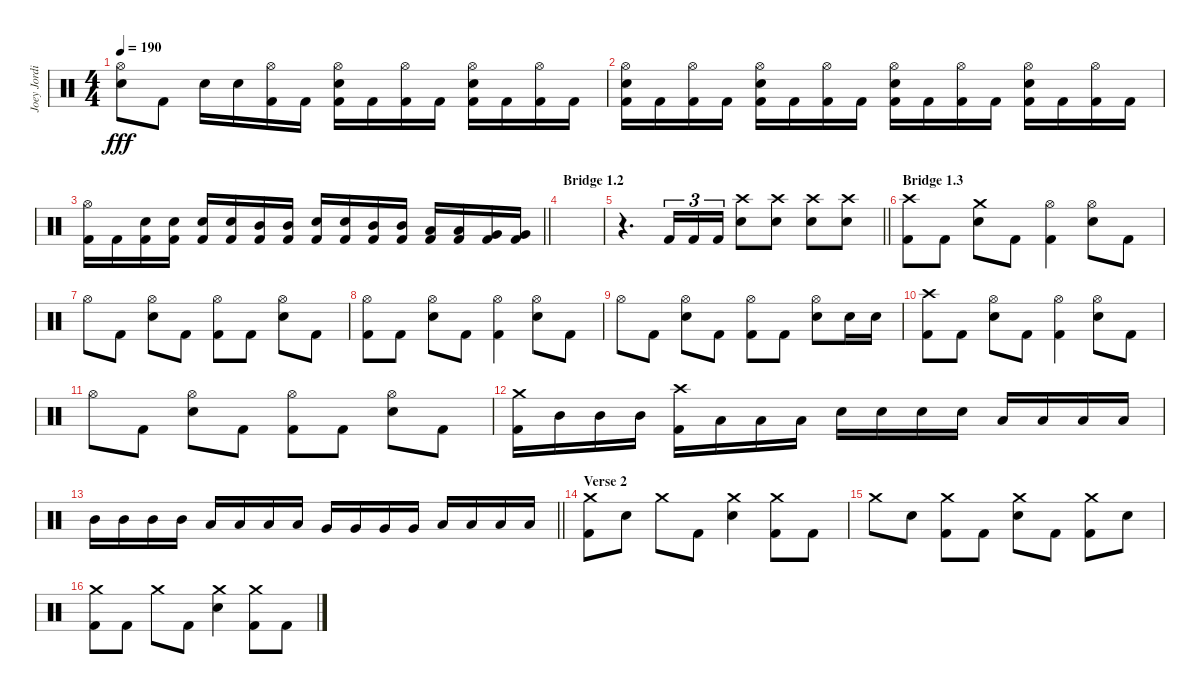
\track ("Joey Jordison" "Joey Jordi") {instrument percussion}
\staff {score}
\articulation defaults
\ts (4 4)
\tempo 190
\clef neutral
\ks c
("Hi-Hat (open)" "Electric Snare (hit)").8{dy fff} "Kick (hit) 2".8 "Electric Snare (hit)".16 "Electric Snare (hit)".16 ("Hi-Hat (open)" "Kick (hit) 2").16 "Kick (hit) 2".16 ("Hi-Hat (open)" "Electric Snare (hit)" "Kick (hit) 2").16 "Kick (hit) 2".16 ("Hi-Hat (open)" "Kick (hit) 2").16 "Kick (hit) 2".16 ("Hi-Hat (open)" "Electric Snare (hit)" "Kick (hit) 2").16 "Kick (hit) 2".16 ("Hi-Hat (open)" "Kick (hit) 2").16 "Kick (hit) 2".16 |
("Hi-Hat (open)" "Electric Snare (hit)" "Kick (hit) 2").16 "Kick (hit) 2".16 ("Hi-Hat (open)" "Kick (hit) 2").16 "Kick (hit) 2".16 ("Hi-Hat (open)" "Electric Snare (hit)" "Kick (hit) 2").16 "Kick (hit) 2".16 ("Hi-Hat (open)" "Kick (hit) 2").16 "Kick (hit) 2".16 ("Hi-Hat (open)" "Electric Snare (hit)" "Kick (hit) 2").16 "Kick (hit) 2".16 ("Hi-Hat (open)" "Kick (hit) 2").16 "Kick (hit) 2".16 ("Hi-Hat (open)" "Electric Snare (hit)" "Kick (hit) 2").16 "Kick (hit) 2".16 ("Hi-Hat (open)" "Kick (hit) 2").16 "Kick (hit) 2".16 |
\barLineRight lightlight
("Hi-Hat (open)" "Kick (hit) 2").16 "Kick (hit) 2".16 ("Electric Snare (hit)" "Kick (hit) 2").16 ("Electric Snare (hit)" "Kick (hit) 2").16 ("Electric Snare (hit)" "Kick (hit) 2").16 ("Electric Snare (hit)" "Kick (hit) 2").16 ("Mid Tom (hit)" "Kick (hit) 2").16 ("Mid Tom (hit)" "Kick (hit) 2").16 ("Electric Snare (hit)" "Kick (hit) 2").16 ("Electric Snare (hit)" "Kick (hit) 2").16 ("Mid Tom (hit)" "Kick (hit) 2").16 ("Mid Tom (hit)" "Kick (hit) 2").16 ("Low Tom (hit)" "Kick (hit) 2").16 ("Low Tom (hit)" "Kick (hit) 2").16 ("Very Low Tom (hit)" "Kick (hit) 2").16 ("Very Low Tom (hit)" "Kick (hit) 2").16 |
\section ("" "Bridge 1.2")
|
\barLineRight lightlight
r.4{d} "Kick (hit) 2".16{tu (3 2)} "Kick (hit) 2".16{tu (3 2)} "Kick (hit) 2".16{tu (3 2)} ("Crash high (hit)" "Electric Snare (hit)").8 ("Crash high (hit)" "Electric Snare (hit)").8 ("Crash high (hit)" "Electric Snare (hit)").8 ("Crash high (hit)" "Electric Snare (hit)").8 |
\section ("" "Bridge 1.3")
("Crash high (hit)" "Kick (hit) 2").8 "Kick (hit) 2".8 ("Crash medium (hit)" "Electric Snare (hit)").8 "Kick (hit) 2".8 ("Hi-Hat (open)" "Kick (hit) 2").4 ("Hi-Hat (open)" "Electric Snare (hit)").8 "Kick (hit) 2".8 |
"Hi-Hat (open)".8 "Kick (hit) 2".8 ("Hi-Hat (open)" "Electric Snare (hit)").8 "Kick (hit) 2".8 ("Hi-Hat (open)" "Kick (hit) 2").8 "Kick (hit) 2".8 ("Hi-Hat (open)" "Electric Snare (hit)").8 "Kick (hit) 2".8 |
("Hi-Hat (open)" "Kick (hit) 2").8 "Kick (hit) 2".8 ("Hi-Hat (open)" "Electric Snare (hit)").8 "Kick (hit) 2".8 ("Hi-Hat (open)" "Kick (hit) 2").4 ("Hi-Hat (open)" "Electric Snare (hit)").8 "Kick (hit) 2".8 |
"Hi-Hat (open)".8 "Kick (hit) 2".8 ("Hi-Hat (open)" "Electric Snare (hit)").8 "Kick (hit) 2".8 ("Hi-Hat (open)" "Kick (hit) 2").8 "Kick (hit) 2".8 ("Hi-Hat (open)" "Electric Snare (hit)").8 "Electric Snare (hit)".16 "Electric Snare (hit)".16 |
("Crash high (hit)" "Kick (hit) 2").8 "Kick (hit) 2".8 ("Hi-Hat (open)" "Electric Snare (hit)").8 "Kick (hit) 2".8 ("Hi-Hat (open)" "Kick (hit) 2").4 ("Hi-Hat (open)" "Electric Snare (hit)").8 "Kick (hit) 2".8 |
"Hi-Hat (open)".8 "Kick (hit) 2".8 ("Hi-Hat (open)" "Electric Snare (hit)").8 "Kick (hit) 2".8 ("Hi-Hat (open)" "Kick (hit) 2").8 "Kick (hit) 2".8 ("Hi-Hat (open)" "Electric Snare (hit)").8 "Kick (hit) 2".8 |
("Crash medium (hit)" "Kick (hit) 2").16 "Mid Tom (hit)".16 "Mid Tom (hit)".16 "Mid Tom (hit)".16 ("Crash high (hit)" "Kick (hit) 2").16 "Low Tom (hit)".16 "Low Tom (hit)".16 "Low Tom (hit)".16 "Electric Snare (hit)".16 "Electric Snare (hit)".16 "Electric Snare (hit)".16 "Electric Snare (hit)".16 "Low Tom (hit)".16 "Low Tom (hit)".16 "Low Tom (hit)".16 "Low Tom (hit)".16 |
\barLineRight lightlight "Mid Tom (hit)".16 "Mid Tom (hit)".16 "Mid Tom (hit)".16 "Mid Tom (hit)".16 "Low Tom (hit)".16 "Low Tom (hit)".16 "Low Tom (hit)".16 "Low Tom (hit)".16 "Very Low Tom (hit)".16 "Very Low Tom (hit)".16 "Very Low Tom (hit)".16 "Very Low Tom (hit)".16 "Low Floor Tom (hit)".16 "Low Floor Tom (hit)".16 "Low Floor Tom (hit)".16 "Low Floor Tom (hit)".16
|
\section ("" "Verse 2")
("Crash medium (hit)" "Kick (hit) 2").8 "Electric Snare (hit)".8 "Crash medium (hit)".8 "Kick (hit) 2".8 ("Crash medium (hit)" "Electric Snare (hit)").4 ("Crash medium (hit)" "Kick (hit) 2").8 "Kick (hit) 2".8 |
"Crash medium (hit)".8 "Electric Snare (hit)".8 ("Crash medium (hit)" "Kick (hit) 2").8 "Kick (hit) 2".8 ("Crash medium (hit)" "Electric Snare (hit)").8 "Kick (hit) 2".8 ("Crash medium (hit)" "Kick (hit) 2").8 "Electric Snare (hit)".8 |
("Crash medium (hit)" "Kick (hit) 2").8 "Kick (hit) 2".8 "Crash medium (hit)".8 "Kick (hit) 2".8 ("Crash medium (hit)" "Electric Snare (hit)").4 ("Crash medium (hit)" "Kick (hit) 2").8 "Kick (hit) 2".8
